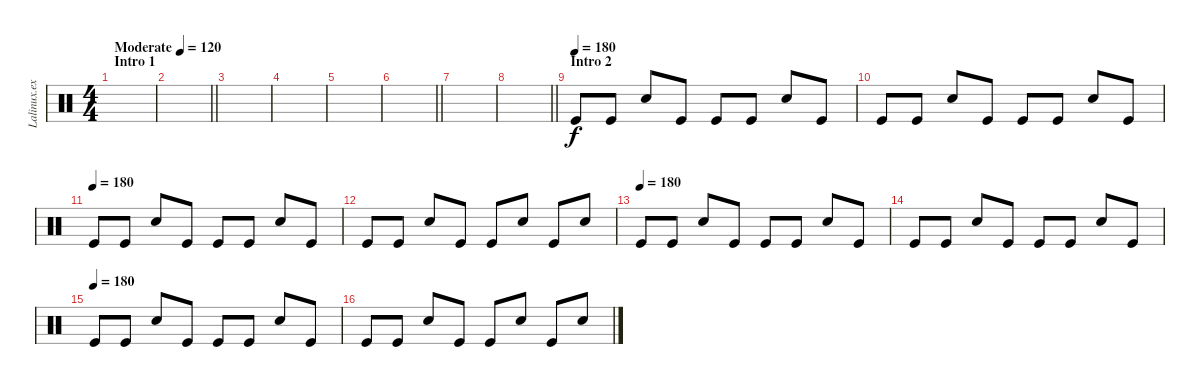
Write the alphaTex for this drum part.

\track ("Lalinux.exe" "Lalinux.ex") {instrument percussion}
\staff {score}
\articulation defaults
\ts (4 4)
\section ("" "Intro 1")
\tempo (120 "Moderate")
\clef neutral
\ks c
|
\barLineRight lightlight
|
|
|
|
\barLineRight lightlight
|
|
\barLineRight lightlight
|
\section ("" "Intro 2")
\tempo (180)
"Kick (hit)".8 "Kick (hit)".8 "Electric Snare (hit)".8 "Kick (hit)".8 "Kick (hit)".8 "Kick (hit)".8 "Electric Snare (hit)".8 "Kick (hit)".8 |
"Kick (hit)".8 "Kick (hit)".8 "Electric Snare (hit)".8 "Kick (hit)".8 "Kick (hit)".8 "Kick (hit)".8 "Electric Snare (hit)".8 "Kick (hit)".8 |
\tempo (180)
"Kick (hit)".8 "Kick (hit)".8 "Electric Snare (hit)".8 "Kick (hit)".8 "Kick (hit)".8 "Kick (hit)".8 "Electric Snare (hit)".8 "Kick (hit)".8 |
"Kick (hit)".8 "Kick (hit)".8 "Electric Snare (hit)".8 "Kick (hit)".8 "Kick (hit)".8 "Electric Snare (hit)".8 "Kick (hit)".8 "Electric Snare (hit)".8 |
\tempo (180)
"Kick (hit)".8 "Kick (hit)".8 "Electric Snare (hit)".8 "Kick (hit)".8 "Kick (hit)".8 "Kick (hit)".8 "Electric Snare (hit)".8 "Kick (hit)".8 |
"Kick (hit)".8 "Kick (hit)".8 "Electric Snare (hit)".8 "Kick (hit)".8 "Kick (hit)".8 "Kick (hit)".8 "Electric Snare (hit)".8 "Kick (hit)".8 |
\tempo (180)
"Kick (hit)".8 "Kick (hit)".8 "Electric Snare (hit)".8 "Kick (hit)".8 "Kick (hit)".8 "Kick (hit)".8 "Electric Snare (hit)".8 "Kick (hit)".8 |
"Kick (hit)".8 "Kick (hit)".8 "Electric Snare (hit)".8 "Kick (hit)".8 "Kick (hit)".8 "Electric Snare (hit)".8 "Kick (hit)".8 "Electric Snare (hit)".8
